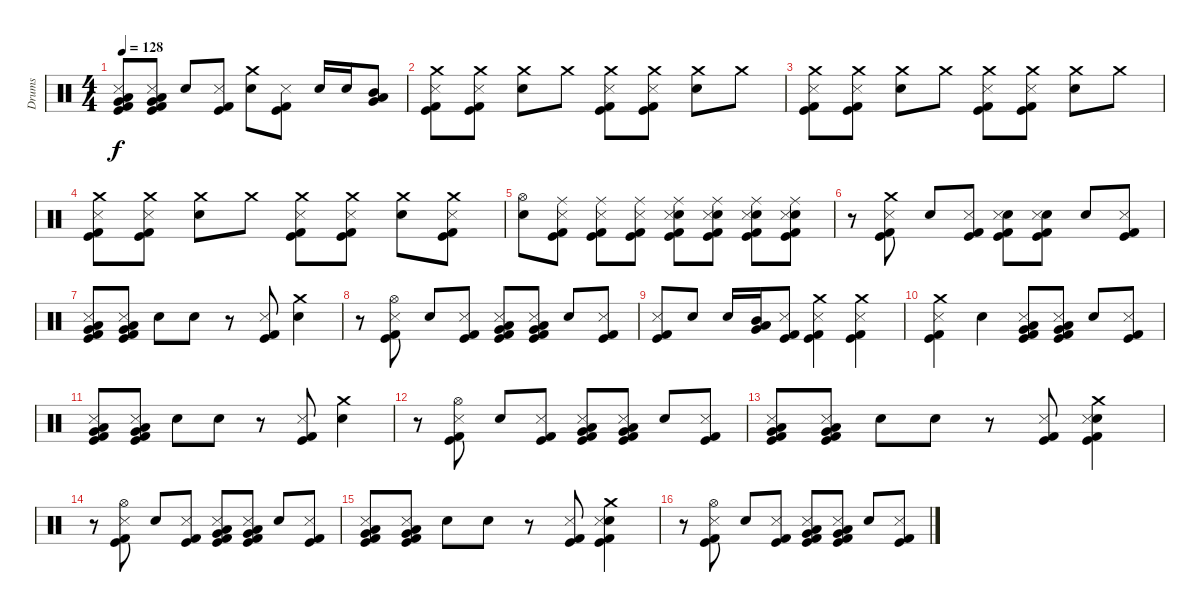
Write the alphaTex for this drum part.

\track ("Drums" "Drums") {instrument percussion}
\staff {score}
\articulation defaults
\ts (4 4)
\tempo 128
\clef neutral
\ks c
("Very Low Tom (hit)" "Low Tom (hit)" "Metronome (hit)" "Kick (hit)" "Kick (hit) 2").8{dy f} ("Very Low Tom (hit)" "Low Tom (hit)" "Metronome (hit)" "Kick (hit)" "Kick (hit) 2").8 "Snare (hit) 2".8 ("Metronome (hit)" "Kick (hit)" "Kick (hit) 2").8 ("Snare (hit) 2" "Crash medium (hit)").8 ("Metronome (hit)" "Kick (hit)" "Kick (hit) 2").8 "Snare (hit) 2".16 "Snare (hit) 2".16 ("Very Low Tom (hit)" "Low Tom (hit)" "Mid Tom (hit)").8 |
("Crash medium (hit)" "Metronome (hit)" "Kick (hit)" "Kick (hit) 2").8 ("Crash medium (hit)" "Metronome (hit)" "Kick (hit)" "Kick (hit) 2").8 ("Snare (hit) 2" "Crash medium (hit)").8 "Crash medium (hit)".8 ("Crash medium (hit)" "Metronome (hit)" "Kick (hit)" "Kick (hit) 2").8 ("Crash medium (hit)" "Metronome (hit)" "Kick (hit)" "Kick (hit) 2").8 ("Snare (hit) 2" "Crash medium (hit)").8 "Crash medium (hit)".8 |
("Crash medium (hit)" "Metronome (hit)" "Kick (hit)" "Kick (hit) 2").8 ("Crash medium (hit)" "Metronome (hit)" "Kick (hit)" "Kick (hit) 2").8 ("Snare (hit) 2" "Crash medium (hit)").8 "Crash medium (hit)".8 ("Crash medium (hit)" "Metronome (hit)" "Kick (hit)" "Kick (hit) 2").8 ("Crash medium (hit)" "Metronome (hit)" "Kick (hit)" "Kick (hit) 2").8 ("Snare (hit) 2" "Crash medium (hit)").8 "Crash medium (hit)".8 |
("Crash medium (hit)" "Metronome (hit)" "Kick (hit)" "Kick (hit) 2").8 ("Crash medium (hit)" "Metronome (hit)" "Kick (hit)" "Kick (hit) 2").8 ("Snare (hit) 2" "Crash medium (hit)").8 "Crash medium (hit)".8 ("Crash medium (hit)" "Metronome (hit)" "Kick (hit)" "Kick (hit) 2").8 ("Crash medium (hit)" "Metronome (hit)" "Kick (hit)" "Kick (hit) 2").8 ("Snare (hit) 2" "Crash medium (hit)").8 ("Crash medium (hit)" "Metronome (hit)" "Kick (hit)" "Kick (hit) 2").8 |
("Snare (hit) 2" "Hi-Hat (open)").8 ("Ride (middle)" "Metronome (hit)" "Kick (hit)" "Kick (hit) 2").8 ("Ride (middle)" "Metronome (hit)" "Kick (hit)" "Kick (hit) 2").8 ("Ride (middle)" "Metronome (hit)" "Kick (hit)" "Kick (hit) 2").8 ("Snare (hit) 2" "Ride (middle)" "Metronome (hit)" "Kick (hit)" "Kick (hit) 2").8 ("Snare (hit) 2" "Ride (middle)" "Metronome (hit)" "Kick (hit)" "Kick (hit) 2").8 ("Snare (hit) 2" "Ride (middle)" "Metronome (hit)" "Kick (hit)" "Kick (hit) 2").8 ("Snare (hit) 2" "Ride (middle)" "Metronome (hit)" "Kick (hit)" "Kick (hit) 2").8 |
r.8 ("Crash medium (hit)" "Metronome (hit)" "Kick (hit)" "Kick (hit) 2").8 "Snare (hit) 2".8 ("Metronome (hit)" "Kick (hit)" "Kick (hit) 2").8 ("Snare (hit) 2" "Metronome (hit)" "Kick (hit)" "Kick (hit) 2").8 ("Snare (hit) 2" "Metronome (hit)" "Kick (hit)" "Kick (hit) 2").8 "Snare (hit) 2".8 ("Metronome (hit)" "Kick (hit)" "Kick (hit) 2").8 |
("Very Low Tom (hit)" "Low Tom (hit)" "Metronome (hit)" "Kick (hit)" "Kick (hit) 2").8 ("Very Low Tom (hit)" "Low Tom (hit)" "Metronome (hit)" "Kick (hit)" "Kick (hit) 2").8 "Snare (hit) 2".8 "Snare (hit) 2".8 r.8 ("Metronome (hit)" "Kick (hit)" "Kick (hit) 2").8 ("Snare (hit) 2" "Crash medium (hit)").4 |
r.8 ("Hi-Hat (open)" "Metronome (hit)" "Kick (hit)" "Kick (hit) 2").8 "Snare (hit) 2".8 ("Metronome (hit)" "Kick (hit)" "Kick (hit) 2").8 ("Very Low Tom (hit)" "Low Tom (hit)" "Metronome (hit)" "Kick (hit)" "Kick (hit) 2").8 ("Very Low Tom (hit)" "Low Tom (hit)" "Metronome (hit)" "Kick (hit)" "Kick (hit) 2").8 "Snare (hit) 2".8 ("Metronome (hit)" "Kick (hit)" "Kick (hit) 2").8 |
("Metronome (hit)" "Kick (hit)" "Kick (hit) 2").8 "Snare (hit) 2".8 "Snare (hit) 2".16 ("Very Low Tom (hit)" "Low Tom (hit)" "Mid Tom (hit)").16 ("Metronome (hit)" "Kick (hit)" "Kick (hit) 2").8 ("Crash medium (hit)" "Metronome (hit)" "Kick (hit)" "Kick (hit) 2").4 ("Crash medium (hit)" "Metronome (hit)" "Kick (hit)" "Kick (hit) 2").4 |
("Crash medium (hit)" "Metronome (hit)" "Kick (hit)" "Kick (hit) 2").4 "Snare (hit) 2".4 ("Very Low Tom (hit)" "Low Tom (hit)" "Metronome (hit)" "Kick (hit)" "Kick (hit) 2").8 ("Very Low Tom (hit)" "Low Tom (hit)" "Metronome (hit)" "Kick (hit)" "Kick (hit) 2").8 "Snare (hit) 2".8 ("Metronome (hit)" "Kick (hit)" "Kick (hit) 2").8 |
("Very Low Tom (hit)" "Low Tom (hit)" "Metronome (hit)" "Kick (hit)" "Kick (hit) 2").8 ("Very Low Tom (hit)" "Low Tom (hit)" "Metronome (hit)" "Kick (hit)" "Kick (hit) 2").8 "Snare (hit) 2".8 "Snare (hit) 2".8 r.8 ("Metronome (hit)" "Kick (hit)" "Kick (hit) 2").8 ("Snare (hit) 2" "Crash medium (hit)").4 |
r.8 ("Hi-Hat (open)" "Metronome (hit)" "Kick (hit)" "Kick (hit) 2").8 "Snare (hit) 2".8 ("Metronome (hit)" "Kick (hit)" "Kick (hit) 2").8 ("Very Low Tom (hit)" "Low Tom (hit)" "Metronome (hit)" "Kick (hit)" "Kick (hit) 2").8 ("Very Low Tom (hit)" "Low Tom (hit)" "Metronome (hit)" "Kick (hit)" "Kick (hit) 2").8 "Snare (hit) 2".8 ("Metronome (hit)" "Kick (hit)" "Kick (hit) 2").8 |
("Very Low Tom (hit)" "Low Tom (hit)" "Metronome (hit)" "Kick (hit)" "Kick (hit) 2").8 ("Very Low Tom (hit)" "Low Tom (hit)" "Metronome (hit)" "Kick (hit)" "Kick (hit) 2").8 "Snare (hit) 2".8 "Snare (hit) 2".8 r.8 ("Metronome (hit)" "Kick (hit)" "Kick (hit) 2").8 ("Snare (hit) 2" "Crash medium (hit)" "Metronome (hit)" "Kick (hit)" "Kick (hit) 2").4 |
r.8 ("Hi-Hat (open)" "Metronome (hit)" "Kick (hit)" "Kick (hit) 2").8 "Snare (hit) 2".8 ("Metronome (hit)" "Kick (hit)" "Kick (hit) 2").8 ("Very Low Tom (hit)" "Low Tom (hit)" "Metronome (hit)" "Kick (hit)" "Kick (hit) 2").8 ("Very Low Tom (hit)" "Low Tom (hit)" "Metronome (hit)" "Kick (hit)" "Kick (hit) 2").8 "Snare (hit) 2".8 ("Metronome (hit)" "Kick (hit)" "Kick (hit) 2").8 |
("Very Low Tom (hit)" "Low Tom (hit)" "Metronome (hit)" "Kick (hit)" "Kick (hit) 2").8 ("Very Low Tom (hit)" "Low Tom (hit)" "Metronome (hit)" "Kick (hit)" "Kick (hit) 2").8 "Snare (hit) 2".8 "Snare (hit) 2".8 r.8 ("Metronome (hit)" "Kick (hit)" "Kick (hit) 2").8 ("Snare (hit) 2" "Crash medium (hit)" "Metronome (hit)" "Kick (hit)" "Kick (hit) 2").4 |
r.8 ("Hi-Hat (open)" "Metronome (hit)" "Kick (hit)" "Kick (hit) 2").8 "Snare (hit) 2".8 ("Metronome (hit)" "Kick (hit)" "Kick (hit) 2").8 ("Very Low Tom (hit)" "Low Tom (hit)" "Metronome (hit)" "Kick (hit)" "Kick (hit) 2").8 ("Very Low Tom (hit)" "Low Tom (hit)" "Metronome (hit)" "Kick (hit)" "Kick (hit) 2").8 "Snare (hit) 2".8 ("Metronome (hit)" "Kick (hit)" "Kick (hit) 2").8
